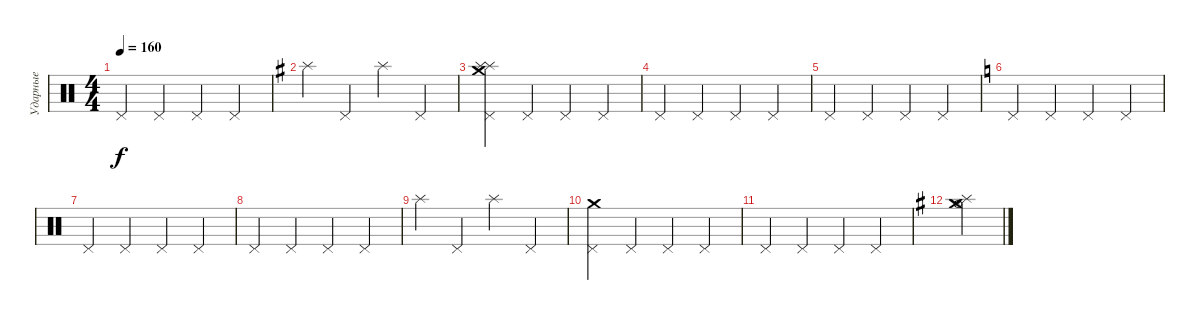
\track ("Ударные" "Ударные") {instrument percussion}
\staff {score}
\articulation defaults
\ts (4 4)
\tempo 160
\clef neutral
\ks c "Pedal Hi-Hat (hit)".4{dy f} "Pedal Hi-Hat (hit)".4 "Pedal Hi-Hat (hit)".4 "Pedal Hi-Hat (hit)".4
|
\ks g "Splash (hit)".4 "Pedal Hi-Hat (hit)".4 "Splash (hit)".4 "Pedal Hi-Hat (hit)".4
|
("Pedal Hi-Hat (hit)" "Crash medium (hit)" "Splash (hit)" "Splash (hit)").4 "Pedal Hi-Hat (hit)".4 "Pedal Hi-Hat (hit)".4 "Pedal Hi-Hat (hit)".4 |
"Pedal Hi-Hat (hit)".4 "Pedal Hi-Hat (hit)".4 "Pedal Hi-Hat (hit)".4 "Pedal Hi-Hat (hit)".4 |
"Pedal Hi-Hat (hit)".4 "Pedal Hi-Hat (hit)".4 "Pedal Hi-Hat (hit)".4 "Pedal Hi-Hat (hit)".4 |
\ks c "Pedal Hi-Hat (hit)".4 "Pedal Hi-Hat (hit)".4 "Pedal Hi-Hat (hit)".4 "Pedal Hi-Hat (hit)".4
|
"Pedal Hi-Hat (hit)".4 "Pedal Hi-Hat (hit)".4 "Pedal Hi-Hat (hit)".4 "Pedal Hi-Hat (hit)".4 |
"Pedal Hi-Hat (hit)".4 "Pedal Hi-Hat (hit)".4 "Pedal Hi-Hat (hit)".4 "Pedal Hi-Hat (hit)".4 |
"Splash (hit)".4 "Pedal Hi-Hat (hit)".4 "Splash (hit)".4 "Pedal Hi-Hat (hit)".4 |
("Pedal Hi-Hat (hit)" "Crash medium (hit)").4 "Pedal Hi-Hat (hit)".4 "Pedal Hi-Hat (hit)".4 "Pedal Hi-Hat (hit)".4 |
"Pedal Hi-Hat (hit)".4 "Pedal Hi-Hat (hit)".4 "Pedal Hi-Hat (hit)".4 "Pedal Hi-Hat (hit)".4 |
\ks g
("Crash medium (hit)" "Splash (hit)" "Hi-Hat (open)").4
